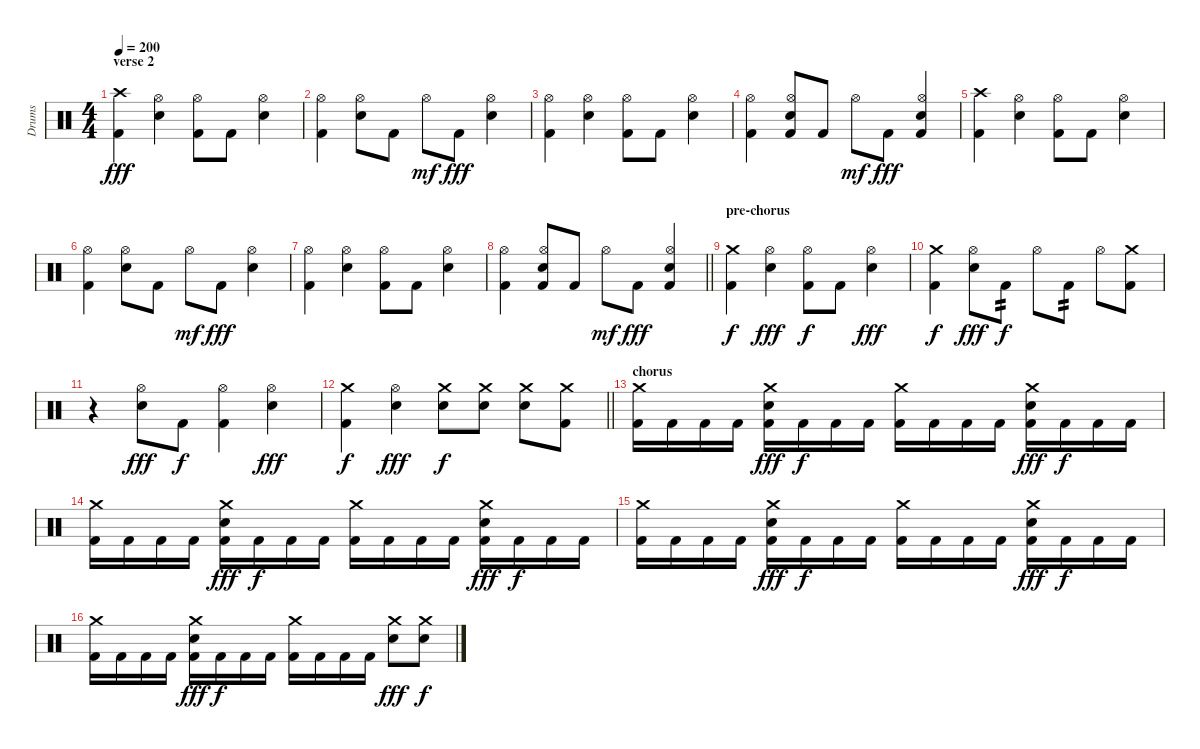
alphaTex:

\track ("Drums" "Drums") {instrument percussion}
\staff {score}
\articulation defaults
\ts (4 4)
\section ("" "verse 2")
\tempo 200
\clef neutral
\ks c
("Crash high (hit)" "Kick (hit) 2").4{dy fff} ("Hi-Hat (open)" "Electric Snare (hit)").4 ("Hi-Hat (open)" "Kick (hit) 2").8 "Kick (hit) 2".8 ("Hi-Hat (open)" "Electric Snare (hit)").4 |
("Hi-Hat (open)" "Kick (hit) 2").4 ("Hi-Hat (open)" "Electric Snare (hit)").8 "Kick (hit) 2".8 "Hi-Hat (open)".8{dy mf} "Kick (hit) 2".8{dy fff} ("Hi-Hat (open)" "Electric Snare (hit)").4 |
("Hi-Hat (open)" "Kick (hit) 2").4 ("Hi-Hat (open)" "Electric Snare (hit)").4 ("Hi-Hat (open)" "Kick (hit) 2").8 "Kick (hit) 2".8 ("Hi-Hat (open)" "Electric Snare (hit)").4 |
("Hi-Hat (open)" "Kick (hit) 2").4 ("Hi-Hat (open)" "Electric Snare (hit)" "Kick (hit) 2").8 "Kick (hit) 2".8 "Hi-Hat (open)".8{dy mf} "Kick (hit) 2".8{dy fff} ("Hi-Hat (open)" "Electric Snare (hit)" "Kick (hit) 2").4 |
("Crash high (hit)" "Kick (hit) 2").4 ("Hi-Hat (open)" "Electric Snare (hit)").4 ("Hi-Hat (open)" "Kick (hit) 2").8 "Kick (hit) 2".8 ("Hi-Hat (open)" "Electric Snare (hit)").4 |
("Hi-Hat (open)" "Kick (hit) 2").4 ("Hi-Hat (open)" "Electric Snare (hit)").8 "Kick (hit) 2".8 "Hi-Hat (open)".8{dy mf} "Kick (hit) 2".8{dy fff} ("Hi-Hat (open)" "Electric Snare (hit)").4 |
("Hi-Hat (open)" "Kick (hit) 2").4 ("Hi-Hat (open)" "Electric Snare (hit)").4 ("Hi-Hat (open)" "Kick (hit) 2").8 "Kick (hit) 2".8 ("Hi-Hat (open)" "Electric Snare (hit)").4 |
\barLineRight lightlight
("Hi-Hat (open)" "Kick (hit) 2").4 ("Hi-Hat (open)" "Electric Snare (hit)" "Kick (hit) 2").8 "Kick (hit) 2".8 "Hi-Hat (open)".8{dy mf} "Kick (hit) 2".8{dy fff} ("Hi-Hat (open)" "Electric Snare (hit)" "Kick (hit) 2").4 |
\section ("" "pre-chorus")
("Crash medium (hit)" "Kick (hit) 2").4{dy f} ("Hi-Hat (open)" "Electric Snare (hit)").4{dy fff} ("Hi-Hat (open)" "Kick (hit) 2").8{dy f} "Kick (hit) 2".8 ("Hi-Hat (open)" "Electric Snare (hit)").4{dy fff} |
("Crash medium (hit)" "Kick (hit) 2").4{dy f} ("Hi-Hat (open)" "Electric Snare (hit)").8{dy fff} "Kick (hit) 2".8{tp 2 dy f} "Hi-Hat (open)".8 "Kick (hit) 2".8{tp 2} "Hi-Hat (open)".8 ("Crash medium (hit)" "Kick (hit) 2").8 |
r.4 ("Hi-Hat (open)" "Electric Snare (hit)").8{dy fff} "Kick (hit) 2".8{dy f} ("Hi-Hat (open)" "Kick (hit) 2").4 ("Hi-Hat (open)" "Electric Snare (hit)").4{dy fff} |
\barLineRight lightlight
("Crash medium (hit)" "Kick (hit) 2").4{dy f} ("Hi-Hat (open)" "Electric Snare (hit)").4{dy fff} ("Crash medium (hit)" "Electric Snare (hit)").8{dy f} ("Crash medium (hit)" "Electric Snare (hit)").8 ("Crash medium (hit)" "Electric Snare (hit)").8 ("Crash medium (hit)" "Kick (hit) 2").8 |
\section ("" "chorus")
("Crash medium (hit)" "Kick (hit) 2").16 "Kick (hit) 2".16 "Kick (hit) 2".16 "Kick (hit) 2".16 ("Crash medium (hit)" "Electric Snare (hit)" "Kick (hit) 2").16{dy fff} "Kick (hit) 2".16{dy f} "Kick (hit) 2".16 "Kick (hit) 2".16 ("Crash medium (hit)" "Kick (hit) 2").16 "Kick (hit) 2".16 "Kick (hit) 2".16 "Kick (hit) 2".16 ("Crash medium (hit)" "Electric Snare (hit)" "Kick (hit) 2").16{dy fff} "Kick (hit) 2".16{dy f} "Kick (hit) 2".16 "Kick (hit) 2".16 |
("Crash medium (hit)" "Kick (hit) 2").16 "Kick (hit) 2".16 "Kick (hit) 2".16 "Kick (hit) 2".16 ("Crash medium (hit)" "Electric Snare (hit)" "Kick (hit) 2").16{dy fff} "Kick (hit) 2".16{dy f} "Kick (hit) 2".16 "Kick (hit) 2".16 ("Crash medium (hit)" "Kick (hit) 2").16 "Kick (hit) 2".16 "Kick (hit) 2".16 "Kick (hit) 2".16 ("Crash medium (hit)" "Electric Snare (hit)" "Kick (hit) 2").16{dy fff} "Kick (hit) 2".16{dy f} "Kick (hit) 2".16 "Kick (hit) 2".16 |
("Crash medium (hit)" "Kick (hit) 2").16 "Kick (hit) 2".16 "Kick (hit) 2".16 "Kick (hit) 2".16 ("Crash medium (hit)" "Electric Snare (hit)" "Kick (hit) 2").16{dy fff} "Kick (hit) 2".16{dy f} "Kick (hit) 2".16 "Kick (hit) 2".16 ("Crash medium (hit)" "Kick (hit) 2").16 "Kick (hit) 2".16 "Kick (hit) 2".16 "Kick (hit) 2".16 ("Crash medium (hit)" "Electric Snare (hit)" "Kick (hit) 2").16{dy fff} "Kick (hit) 2".16{dy f} "Kick (hit) 2".16 "Kick (hit) 2".16 |
("Crash medium (hit)" "Kick (hit) 2").16 "Kick (hit) 2".16 "Kick (hit) 2".16 "Kick (hit) 2".16 ("Crash medium (hit)" "Electric Snare (hit)" "Kick (hit) 2").16{dy fff} "Kick (hit) 2".16{dy f} "Kick (hit) 2".16 "Kick (hit) 2".16 ("Crash medium (hit)" "Kick (hit) 2").16 "Kick (hit) 2".16 "Kick (hit) 2".16 "Kick (hit) 2".16 ("Crash medium (hit)" "Electric Snare (hit)").8{dy fff} ("Crash medium (hit)" "Electric Snare (hit)").8{dy f}
